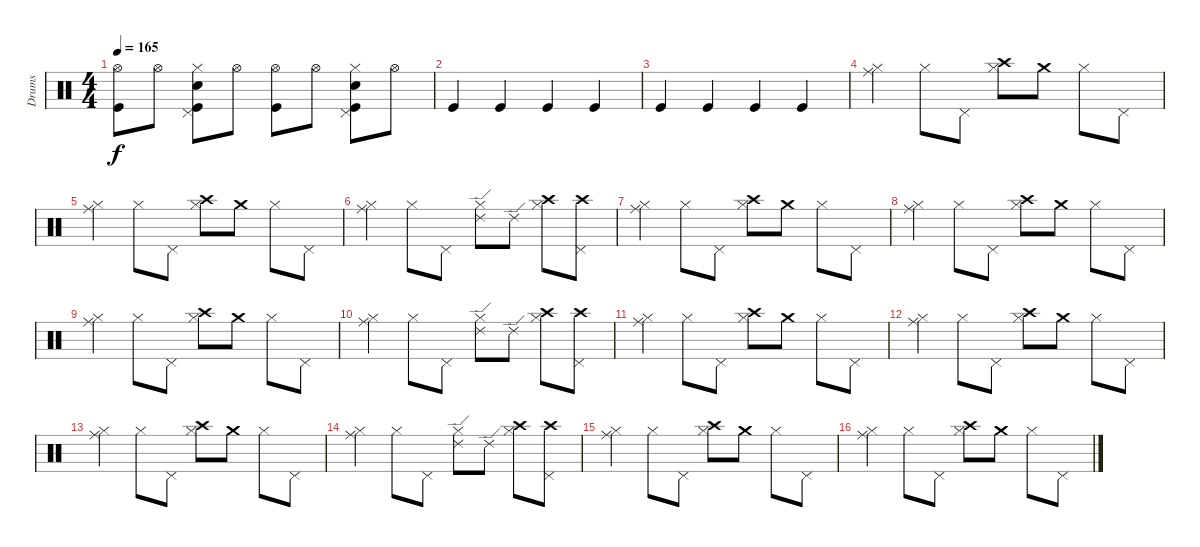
\track ("Drums" "Drums") {instrument percussion}
\staff {score}
\articulation defaults
\ts (4 4)
\tempo 165
\clef neutral
\ks c
("Hi-Hat (open)" "Kick (hit)").8{dy f} "Hi-Hat (open)".8 ("Hi-Hat (closed)" "Pedal Hi-Hat (hit)" "Snare (hit) 2" "Kick (hit)").8 "Hi-Hat (open)".8 ("Hi-Hat (open)" "Kick (hit)").8 "Hi-Hat (open)".8 ("Hi-Hat (closed)" "Pedal Hi-Hat (hit)" "Snare (hit) 2" "Kick (hit)").8 "Hi-Hat (open)".8 |
"Kick (hit)".4 "Kick (hit)".4 "Kick (hit)".4 "Kick (hit)".4 |
"Kick (hit)".4 "Kick (hit)".4 "Kick (hit)".4 "Kick (hit)".4 |
("Hi-Hat (closed)" "Ride (middle)").4 "Hi-Hat (closed)".8 "Pedal Hi-Hat (hit)".8 ("Hi-Hat (closed)" "Crash high (hit)").8 "Crash medium (hit)".8 "Hi-Hat (closed)".8 "Pedal Hi-Hat (hit)".8 |
("Hi-Hat (closed)" "Ride (middle)").4 "Hi-Hat (closed)".8 "Pedal Hi-Hat (hit)".8 ("Hi-Hat (closed)" "Crash high (hit)").8 "Crash medium (hit)".8 "Hi-Hat (closed)".8 "Pedal Hi-Hat (hit)".8 |
("Hi-Hat (closed)" "Ride (middle)").4 "Hi-Hat (closed)".8 "Pedal Hi-Hat (hit)".8 ("Hi-Hat (closed)" "Ride (edge) 2").8 "Ride (edge) 2".8 ("Hi-Hat (closed)" "Crash high (hit)").8 ("Pedal Hi-Hat (hit)" "Crash high (hit)").8 |
("Hi-Hat (closed)" "Ride (middle)").4 "Hi-Hat (closed)".8 "Pedal Hi-Hat (hit)".8 ("Hi-Hat (closed)" "Crash high (hit)").8 "Crash medium (hit)".8 "Hi-Hat (closed)".8 "Pedal Hi-Hat (hit)".8 |
("Hi-Hat (closed)" "Ride (middle)").4 "Hi-Hat (closed)".8 "Pedal Hi-Hat (hit)".8 ("Hi-Hat (closed)" "Crash high (hit)").8 "Crash medium (hit)".8 "Hi-Hat (closed)".8 "Pedal Hi-Hat (hit)".8 |
("Hi-Hat (closed)" "Ride (middle)").4 "Hi-Hat (closed)".8 "Pedal Hi-Hat (hit)".8 ("Hi-Hat (closed)" "Crash high (hit)").8 "Crash medium (hit)".8 "Hi-Hat (closed)".8 "Pedal Hi-Hat (hit)".8 |
("Hi-Hat (closed)" "Ride (middle)").4 "Hi-Hat (closed)".8 "Pedal Hi-Hat (hit)".8 ("Hi-Hat (closed)" "Ride (edge) 2").8 "Ride (edge) 2".8 ("Hi-Hat (closed)" "Crash high (hit)").8 ("Pedal Hi-Hat (hit)" "Crash high (hit)").8 |
("Hi-Hat (closed)" "Ride (middle)").4 "Hi-Hat (closed)".8 "Pedal Hi-Hat (hit)".8 ("Hi-Hat (closed)" "Crash high (hit)").8 "Crash medium (hit)".8 "Hi-Hat (closed)".8 "Pedal Hi-Hat (hit)".8 |
("Hi-Hat (closed)" "Ride (middle)").4 "Hi-Hat (closed)".8 "Pedal Hi-Hat (hit)".8 ("Hi-Hat (closed)" "Crash high (hit)").8 "Crash medium (hit)".8 "Hi-Hat (closed)".8 "Pedal Hi-Hat (hit)".8 |
("Hi-Hat (closed)" "Ride (middle)").4 "Hi-Hat (closed)".8 "Pedal Hi-Hat (hit)".8 ("Hi-Hat (closed)" "Crash high (hit)").8 "Crash medium (hit)".8 "Hi-Hat (closed)".8 "Pedal Hi-Hat (hit)".8 |
("Hi-Hat (closed)" "Ride (middle)").4 "Hi-Hat (closed)".8 "Pedal Hi-Hat (hit)".8 ("Hi-Hat (closed)" "Ride (edge) 2").8 "Ride (edge) 2".8 ("Hi-Hat (closed)" "Crash high (hit)").8 ("Pedal Hi-Hat (hit)" "Crash high (hit)").8 |
("Hi-Hat (closed)" "Ride (middle)").4 "Hi-Hat (closed)".8 "Pedal Hi-Hat (hit)".8 ("Hi-Hat (closed)" "Crash high (hit)").8 "Crash medium (hit)".8 "Hi-Hat (closed)".8 "Pedal Hi-Hat (hit)".8 |
("Hi-Hat (closed)" "Ride (middle)").4 "Hi-Hat (closed)".8 "Pedal Hi-Hat (hit)".8 ("Hi-Hat (closed)" "Crash high (hit)").8 "Crash medium (hit)".8 "Hi-Hat (closed)".8 "Pedal Hi-Hat (hit)".8
